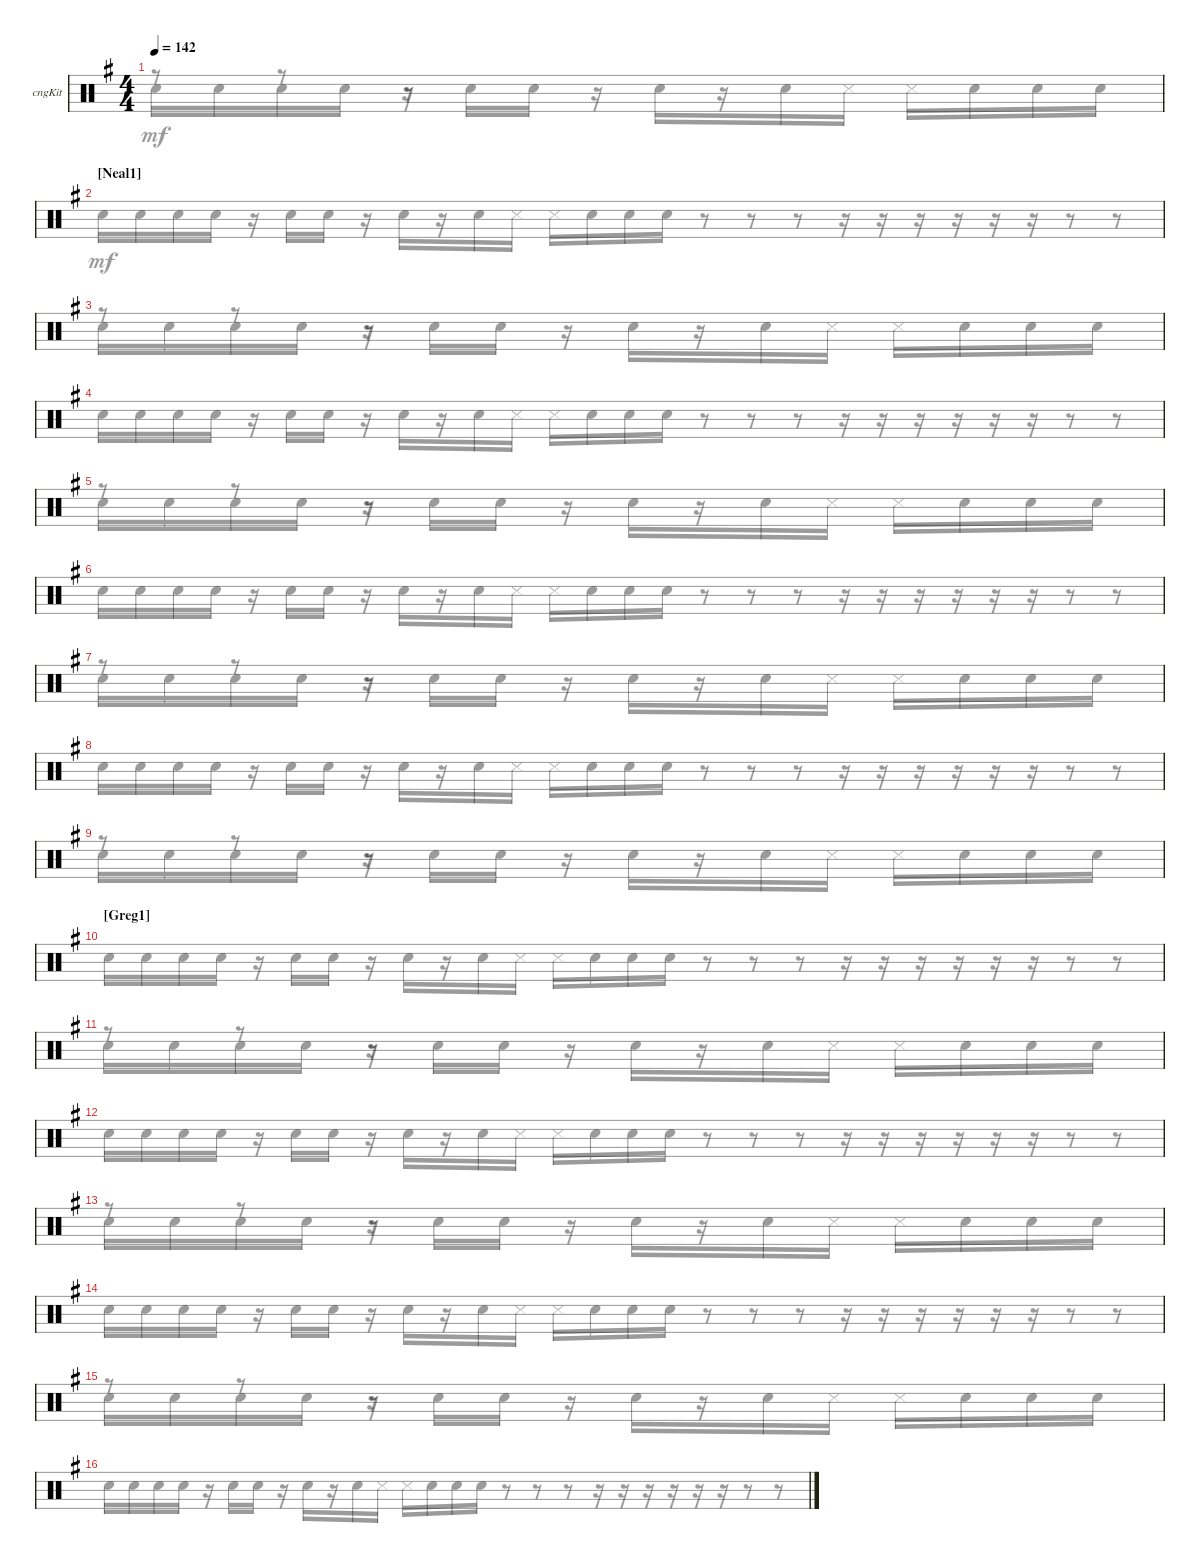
\bracketExtendMode groupsimilarinstruments
\firstSystemTrackNameOrientation horizontal
\otherSystemsTrackNameOrientation horizontal
\track ("Congas" "cngKit") {instrument percussion}
\staff {score}
\articulation defaults
\voice
\ts (4 4)
\tempo 142
\clef neutral
\ks eminor
|
\section ("" "[Neal1] ")
|
|
|
|
|
|
|
|
\section ("" "[Greg1] ")
|
|
|
|
|
|
\voice
\clef neutral
\ks eminor
r.8{dy mf} r.8 r.8 |
"Snare (hit) 2".16 "Snare (hit) 2".16 "Snare (hit) 2".16 "Snare (hit) 2".16 r.16 "Snare (hit) 2".16 "Snare (hit) 2".16 r.16 "Snare (hit) 2".16 r.16 "Snare (hit) 2".16 "Snare (side stick) 3".16 "Snare (side stick) 3".16 "Snare (hit) 2".16 "Snare (hit) 2".16 "Snare (hit) 2".16 r.8 r.8 r.8 r.16 r.16 r.16 r.16 r.16 r.16 r.8 r.8 |
r.8 r.8 r.8 |
"Snare (hit) 2".16 "Snare (hit) 2".16 "Snare (hit) 2".16 "Snare (hit) 2".16 r.16 "Snare (hit) 2".16 "Snare (hit) 2".16 r.16 "Snare (hit) 2".16 r.16 "Snare (hit) 2".16 "Snare (side stick) 3".16 "Snare (side stick) 3".16 "Snare (hit) 2".16 "Snare (hit) 2".16 "Snare (hit) 2".16 r.8 r.8 r.8 r.16 r.16 r.16 r.16 r.16 r.16 r.8 r.8 |
r.8 r.8 r.8 |
"Snare (hit) 2".16 "Snare (hit) 2".16 "Snare (hit) 2".16 "Snare (hit) 2".16 r.16 "Snare (hit) 2".16 "Snare (hit) 2".16 r.16 "Snare (hit) 2".16 r.16 "Snare (hit) 2".16 "Snare (side stick) 3".16 "Snare (side stick) 3".16 "Snare (hit) 2".16 "Snare (hit) 2".16 "Snare (hit) 2".16 r.8 r.8 r.8 r.16 r.16 r.16 r.16 r.16 r.16 r.8 r.8 |
r.8 r.8 r.8 |
"Snare (hit) 2".16 "Snare (hit) 2".16 "Snare (hit) 2".16 "Snare (hit) 2".16 r.16 "Snare (hit) 2".16 "Snare (hit) 2".16 r.16 "Snare (hit) 2".16 r.16 "Snare (hit) 2".16 "Snare (side stick) 3".16 "Snare (side stick) 3".16 "Snare (hit) 2".16 "Snare (hit) 2".16 "Snare (hit) 2".16 r.8 r.8 r.8 r.16 r.16 r.16 r.16 r.16 r.16 r.8 r.8 |
r.8 r.8 r.8 |
"Snare (hit) 2".16 "Snare (hit) 2".16 "Snare (hit) 2".16 "Snare (hit) 2".16 r.16 "Snare (hit) 2".16 "Snare (hit) 2".16 r.16 "Snare (hit) 2".16 r.16 "Snare (hit) 2".16 "Snare (side stick) 3".16 "Snare (side stick) 3".16 "Snare (hit) 2".16 "Snare (hit) 2".16 "Snare (hit) 2".16 r.8 r.8 r.8 r.16 r.16 r.16 r.16 r.16 r.16 r.8 r.8 |
r.8 r.8 r.8 |
"Snare (hit) 2".16 "Snare (hit) 2".16 "Snare (hit) 2".16 "Snare (hit) 2".16 r.16 "Snare (hit) 2".16 "Snare (hit) 2".16 r.16 "Snare (hit) 2".16 r.16 "Snare (hit) 2".16 "Snare (side stick) 3".16 "Snare (side stick) 3".16 "Snare (hit) 2".16 "Snare (hit) 2".16 "Snare (hit) 2".16 r.8 r.8 r.8 r.16 r.16 r.16 r.16 r.16 r.16 r.8 r.8 |
r.8 r.8 r.8 |
"Snare (hit) 2".16 "Snare (hit) 2".16 "Snare (hit) 2".16 "Snare (hit) 2".16 r.16 "Snare (hit) 2".16 "Snare (hit) 2".16 r.16 "Snare (hit) 2".16 r.16 "Snare (hit) 2".16 "Snare (side stick) 3".16 "Snare (side stick) 3".16 "Snare (hit) 2".16 "Snare (hit) 2".16 "Snare (hit) 2".16 r.8 r.8 r.8 r.16 r.16 r.16 r.16 r.16 r.16 r.8 r.8 |
r.8 r.8 r.8 |
"Snare (hit) 2".16 "Snare (hit) 2".16 "Snare (hit) 2".16 "Snare (hit) 2".16 r.16 "Snare (hit) 2".16 "Snare (hit) 2".16 r.16 "Snare (hit) 2".16 r.16 "Snare (hit) 2".16 "Snare (side stick) 3".16 "Snare (side stick) 3".16 "Snare (hit) 2".16 "Snare (hit) 2".16 "Snare (hit) 2".16 r.8 r.8 r.8 r.16 r.16 r.16 r.16 r.16 r.16 r.8 r.8
\voice
\clef neutral
\ottava regular
\simile none
\ks eminor "Snare (hit) 2".16{dy mf} "Snare (hit) 2".16 "Snare (hit) 2".16 "Snare (hit) 2".16
r.16 "Snare (hit) 2".16 "Snare (hit) 2".16 r.16 "Snare (hit) 2".16 r.16 "Snare (hit) 2".16 "Snare (side stick) 3".16 "Snare (side stick) 3".16 "Snare (hit) 2".16 "Snare (hit) 2".16 "Snare (hit) 2".16 |
|
"Snare (hit) 2".16 "Snare (hit) 2".16 "Snare (hit) 2".16 "Snare (hit) 2".16 r.16 "Snare (hit) 2".16 "Snare (hit) 2".16 r.16 "Snare (hit) 2".16 r.16 "Snare (hit) 2".16 "Snare (side stick) 3".16 "Snare (side stick) 3".16 "Snare (hit) 2".16 "Snare (hit) 2".16 "Snare (hit) 2".16 |
|
"Snare (hit) 2".16 "Snare (hit) 2".16 "Snare (hit) 2".16 "Snare (hit) 2".16 r.16 "Snare (hit) 2".16 "Snare (hit) 2".16 r.16 "Snare (hit) 2".16 r.16 "Snare (hit) 2".16 "Snare (side stick) 3".16 "Snare (side stick) 3".16 "Snare (hit) 2".16 "Snare (hit) 2".16 "Snare (hit) 2".16 |
|
"Snare (hit) 2".16 "Snare (hit) 2".16 "Snare (hit) 2".16 "Snare (hit) 2".16 r.16 "Snare (hit) 2".16 "Snare (hit) 2".16 r.16 "Snare (hit) 2".16 r.16 "Snare (hit) 2".16 "Snare (side stick) 3".16 "Snare (side stick) 3".16 "Snare (hit) 2".16 "Snare (hit) 2".16 "Snare (hit) 2".16 |
|
"Snare (hit) 2".16 "Snare (hit) 2".16 "Snare (hit) 2".16 "Snare (hit) 2".16 r.16 "Snare (hit) 2".16 "Snare (hit) 2".16 r.16 "Snare (hit) 2".16 r.16 "Snare (hit) 2".16 "Snare (side stick) 3".16 "Snare (side stick) 3".16 "Snare (hit) 2".16 "Snare (hit) 2".16 "Snare (hit) 2".16 |
|
"Snare (hit) 2".16 "Snare (hit) 2".16 "Snare (hit) 2".16 "Snare (hit) 2".16 r.16 "Snare (hit) 2".16 "Snare (hit) 2".16 r.16 "Snare (hit) 2".16 r.16 "Snare (hit) 2".16 "Snare (side stick) 3".16 "Snare (side stick) 3".16 "Snare (hit) 2".16 "Snare (hit) 2".16 "Snare (hit) 2".16 |
|
"Snare (hit) 2".16 "Snare (hit) 2".16 "Snare (hit) 2".16 "Snare (hit) 2".16 r.16 "Snare (hit) 2".16 "Snare (hit) 2".16 r.16 "Snare (hit) 2".16 r.16 "Snare (hit) 2".16 "Snare (side stick) 3".16 "Snare (side stick) 3".16 "Snare (hit) 2".16 "Snare (hit) 2".16 "Snare (hit) 2".16 |
|
"Snare (hit) 2".16 "Snare (hit) 2".16 "Snare (hit) 2".16 "Snare (hit) 2".16 r.16 "Snare (hit) 2".16 "Snare (hit) 2".16 r.16 "Snare (hit) 2".16 r.16 "Snare (hit) 2".16 "Snare (side stick) 3".16 "Snare (side stick) 3".16 "Snare (hit) 2".16 "Snare (hit) 2".16 "Snare (hit) 2".16 |
